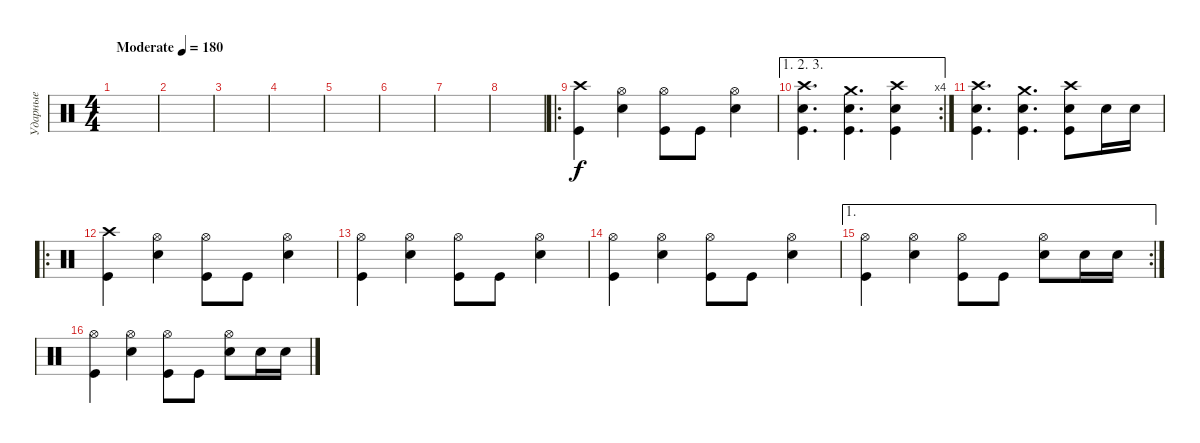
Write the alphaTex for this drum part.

\track ("Ударные" "Ударные") {instrument percussion}
\staff {score}
\articulation defaults
\ts (4 4)
\tempo (180 "Moderate")
\clef neutral
\ks c
|
|
|
|
|
|
|
|
\ro
("Crash high (hit)" "Kick (hit)").4 ("Hi-Hat (open)" "Electric Snare (hit)").4 ("Hi-Hat (open)" "Kick (hit)").8 "Kick (hit)".8 ("Hi-Hat (open)" "Electric Snare (hit)").4 |
\ae (1 2 3)
\rc 4
("Crash high (hit)" "Electric Snare (hit)" "Kick (hit)").4{d} ("Crash medium (hit)" "Electric Snare (hit)" "Kick (hit)").4{d} ("Crash high (hit)" "Electric Snare (hit)" "Kick (hit)").4 |
("Crash high (hit)" "Electric Snare (hit)" "Kick (hit)").4{d} ("Crash medium (hit)" "Electric Snare (hit)" "Kick (hit)").4{d} ("Crash high (hit)" "Electric Snare (hit)" "Kick (hit)").8 "Electric Snare (hit)".16 "Electric Snare (hit)".16 |
\ro
("Crash high (hit)" "Kick (hit)").4 ("Hi-Hat (open)" "Electric Snare (hit)").4 ("Hi-Hat (open)" "Kick (hit)").8 "Kick (hit)".8 ("Hi-Hat (open)" "Electric Snare (hit)").4 |
("Hi-Hat (open)" "Kick (hit)").4 ("Hi-Hat (open)" "Electric Snare (hit)").4 ("Hi-Hat (open)" "Kick (hit)").8 "Kick (hit)".8 ("Hi-Hat (open)" "Electric Snare (hit)").4 |
("Hi-Hat (open)" "Kick (hit)").4 ("Hi-Hat (open)" "Electric Snare (hit)").4 ("Hi-Hat (open)" "Kick (hit)").8 "Kick (hit)".8 ("Hi-Hat (open)" "Electric Snare (hit)").4 |
\ae 1
\rc 2
("Hi-Hat (open)" "Kick (hit)").4 ("Hi-Hat (open)" "Electric Snare (hit)").4 ("Hi-Hat (open)" "Kick (hit)").8 "Kick (hit)".8 ("Hi-Hat (open)" "Electric Snare (hit)").8 "Electric Snare (hit)".16 "Electric Snare (hit)".16 |
("Hi-Hat (open)" "Kick (hit)").4 ("Hi-Hat (open)" "Electric Snare (hit)").4 ("Hi-Hat (open)" "Kick (hit)").8 "Kick (hit)".8 ("Hi-Hat (open)" "Electric Snare (hit)").8 "Electric Snare (hit)".16 "Electric Snare (hit)".16
